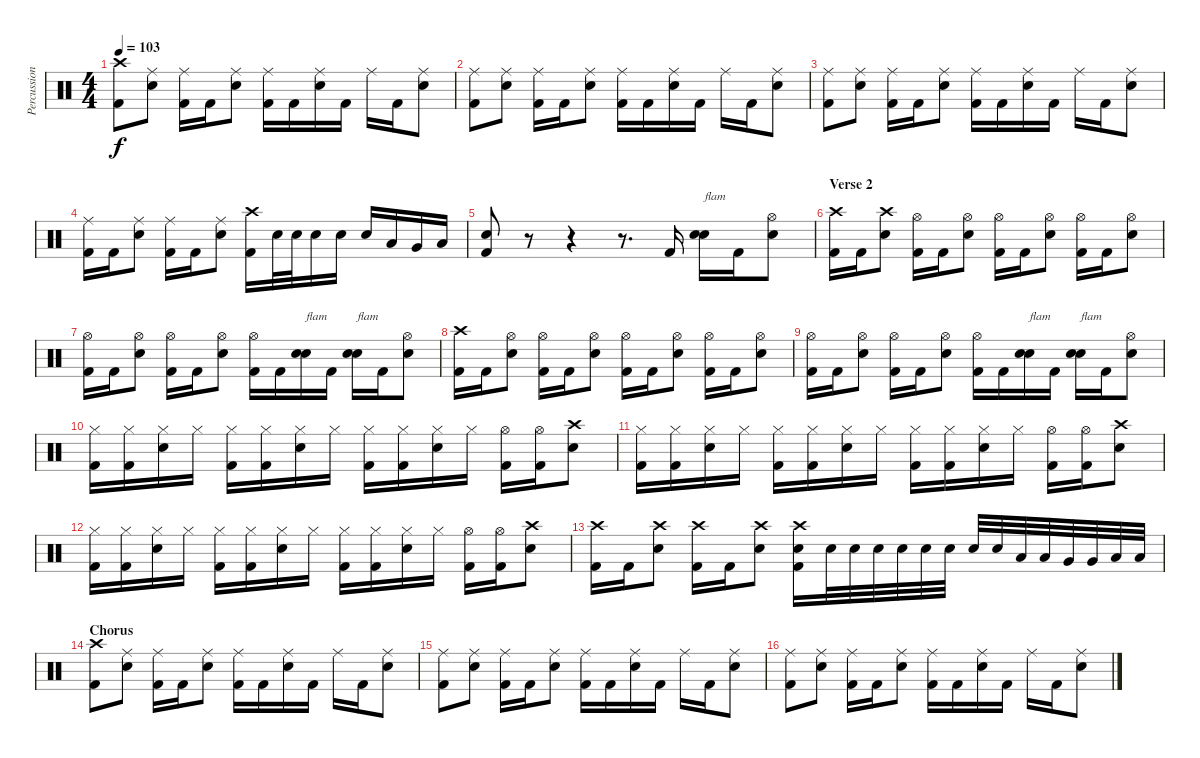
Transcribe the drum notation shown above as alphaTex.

\track ("Percussion - Brandon Barnes" "Percussion") {instrument percussion}
\staff {score}
\articulation defaults
\ts (4 4)
\tempo 103
\clef neutral
\ks c
("Crash high (hit)" "Kick (hit) 2").8{dy f} ("Ride (middle)" "Electric Snare (hit)").8 ("Ride (middle)" "Kick (hit) 2").16 "Kick (hit) 2".16 ("Ride (middle)" "Electric Snare (hit)").8 ("Ride (middle)" "Kick (hit) 2").16 "Kick (hit) 2".16 ("Ride (middle)" "Electric Snare (hit)").16 "Kick (hit) 2".16 "Ride (middle)".16 "Kick (hit) 2".16 ("Ride (middle)" "Electric Snare (hit)").8 |
("Ride (middle)" "Kick (hit) 2").8 ("Ride (middle)" "Electric Snare (hit)").8 ("Ride (middle)" "Kick (hit) 2").16 "Kick (hit) 2".16 ("Ride (middle)" "Electric Snare (hit)").8 ("Ride (middle)" "Kick (hit) 2").16 "Kick (hit) 2".16 ("Ride (middle)" "Electric Snare (hit)").16 "Kick (hit) 2".16 "Ride (middle)".16 "Kick (hit) 2".16 ("Ride (middle)" "Electric Snare (hit)").8 |
("Ride (middle)" "Kick (hit) 2").8 ("Ride (middle)" "Electric Snare (hit)").8 ("Ride (middle)" "Kick (hit) 2").16 "Kick (hit) 2".16 ("Ride (middle)" "Electric Snare (hit)").8 ("Ride (middle)" "Kick (hit) 2").16 "Kick (hit) 2".16 ("Ride (middle)" "Electric Snare (hit)").16 "Kick (hit) 2".16 "Ride (middle)".16 "Kick (hit) 2".16 ("Ride (middle)" "Electric Snare (hit)").8 |
("Ride (middle)" "Kick (hit) 2").16 "Kick (hit) 2".16 ("Ride (middle)" "Electric Snare (hit)").8 ("Ride (middle)" "Kick (hit) 2").16 "Kick (hit) 2".16 ("Ride (middle)" "Electric Snare (hit)").8 ("Crash high (hit)" "Kick (hit) 2").16 "Electric Snare (hit)".32 "Electric Snare (hit)".32 "Electric Snare (hit)".16 "Electric Snare (hit)".16 "Electric Snare (hit)".16 "Low Tom (hit)".16 "Very Low Tom (hit)".16 "Low Floor Tom (hit)".16 |
("Electric Snare (hit)" "Kick (hit) 2").8 r.8 r.4 r.8{d} "Kick (hit) 2".16 ("Electric Snare (hit)" "Electric Snare (hit)").16{bd 30 txt "flam"} "Kick (hit) 2".16 ("Hi-Hat (open)" "Electric Snare (hit)").8 |
\section ("" "Verse 2")
("Crash high (hit)" "Kick (hit) 2").16 "Kick (hit) 2".16 ("Crash high (hit)" "Electric Snare (hit)").8 ("Hi-Hat (open)" "Kick (hit) 2").16 "Kick (hit) 2".16 ("Hi-Hat (open)" "Electric Snare (hit)").8 ("Hi-Hat (open)" "Kick (hit) 2").16 "Kick (hit) 2".16 ("Hi-Hat (open)" "Electric Snare (hit)").8 ("Hi-Hat (open)" "Kick (hit) 2").16 "Kick (hit) 2".16 ("Hi-Hat (open)" "Electric Snare (hit)").8 |
("Hi-Hat (open)" "Kick (hit) 2").16 "Kick (hit) 2".16 ("Hi-Hat (open)" "Electric Snare (hit)").8 ("Hi-Hat (open)" "Kick (hit) 2").16 "Kick (hit) 2".16 ("Hi-Hat (open)" "Electric Snare (hit)").8 ("Hi-Hat (open)" "Kick (hit) 2").16 "Kick (hit) 2".16 ("Electric Snare (hit)" "Electric Snare (hit)").16{bd 30 txt "flam"} "Kick (hit) 2".16 ("Electric Snare (hit)" "Electric Snare (hit)").16{bd 30 txt "flam"} "Kick (hit) 2".16 ("Hi-Hat (open)" "Electric Snare (hit)").8 |
("Crash high (hit)" "Kick (hit) 2").16 "Kick (hit) 2".16 ("Hi-Hat (open)" "Electric Snare (hit)").8 ("Hi-Hat (open)" "Kick (hit) 2").16 "Kick (hit) 2".16 ("Hi-Hat (open)" "Electric Snare (hit)").8 ("Hi-Hat (open)" "Kick (hit) 2").16 "Kick (hit) 2".16 ("Hi-Hat (open)" "Electric Snare (hit)").8 ("Hi-Hat (open)" "Kick (hit) 2").16 "Kick (hit) 2".16 ("Hi-Hat (open)" "Electric Snare (hit)").8 |
("Hi-Hat (open)" "Kick (hit) 2").16 "Kick (hit) 2".16 ("Hi-Hat (open)" "Electric Snare (hit)").8 ("Hi-Hat (open)" "Kick (hit) 2").16 "Kick (hit) 2".16 ("Hi-Hat (open)" "Electric Snare (hit)").8 ("Hi-Hat (open)" "Kick (hit) 2").16 "Kick (hit) 2".16 ("Electric Snare (hit)" "Electric Snare (hit)").16{bd 30 txt "flam"} "Kick (hit) 2".16 ("Electric Snare (hit)" "Electric Snare (hit)").16{bd 30 txt "flam"} "Kick (hit) 2".16 ("Hi-Hat (open)" "Electric Snare (hit)").8 |
("Hi-Hat (closed)" "Kick (hit) 2").16 ("Hi-Hat (closed)" "Kick (hit) 2").16 ("Hi-Hat (closed)" "Electric Snare (hit)").16 "Hi-Hat (closed)".16 ("Hi-Hat (closed)" "Kick (hit) 2").16 ("Hi-Hat (closed)" "Kick (hit) 2").16 ("Hi-Hat (closed)" "Electric Snare (hit)").16 "Hi-Hat (closed)".16 ("Hi-Hat (closed)" "Kick (hit) 2").16 ("Hi-Hat (closed)" "Kick (hit) 2").16 ("Hi-Hat (closed)" "Electric Snare (hit)").16 "Hi-Hat (closed)".16 ("Hi-Hat (open)" "Kick (hit) 2").16 ("Hi-Hat (open)" "Kick (hit) 2").16 ("Crash high (hit)" "Electric Snare (hit)").8 |
("Hi-Hat (closed)" "Kick (hit) 2").16 ("Hi-Hat (closed)" "Kick (hit) 2").16 ("Hi-Hat (closed)" "Electric Snare (hit)").16 "Hi-Hat (closed)".16 ("Hi-Hat (closed)" "Kick (hit) 2").16 ("Hi-Hat (closed)" "Kick (hit) 2").16 ("Hi-Hat (closed)" "Electric Snare (hit)").16 "Hi-Hat (closed)".16 ("Hi-Hat (closed)" "Kick (hit) 2").16 ("Hi-Hat (closed)" "Kick (hit) 2").16 ("Hi-Hat (closed)" "Electric Snare (hit)").16 "Hi-Hat (closed)".16 ("Hi-Hat (open)" "Kick (hit) 2").16 ("Hi-Hat (open)" "Kick (hit) 2").16 ("Crash high (hit)" "Electric Snare (hit)").8 |
("Hi-Hat (closed)" "Kick (hit) 2").16 ("Hi-Hat (closed)" "Kick (hit) 2").16 ("Hi-Hat (closed)" "Electric Snare (hit)").16 "Hi-Hat (closed)".16 ("Hi-Hat (closed)" "Kick (hit) 2").16 ("Hi-Hat (closed)" "Kick (hit) 2").16 ("Hi-Hat (closed)" "Electric Snare (hit)").16 "Hi-Hat (closed)".16 ("Hi-Hat (closed)" "Kick (hit) 2").16 ("Hi-Hat (closed)" "Kick (hit) 2").16 ("Hi-Hat (closed)" "Electric Snare (hit)").16 "Hi-Hat (closed)".16 ("Hi-Hat (open)" "Kick (hit) 2").16 ("Hi-Hat (open)" "Kick (hit) 2").16 ("Crash high (hit)" "Electric Snare (hit)").8 |
("Crash high (hit)" "Kick (hit) 2").16 "Kick (hit) 2".16 ("Crash high (hit)" "Electric Snare (hit)").8 ("Crash high (hit)" "Kick (hit) 2").16 "Kick (hit) 2".16 ("Crash high (hit)" "Electric Snare (hit)").8 ("Crash high (hit)" "Electric Snare (hit)" "Kick (hit) 2").16 "Electric Snare (hit)".32 "Electric Snare (hit)".32 "Electric Snare (hit)".32 "Electric Snare (hit)".32 "Electric Snare (hit)".32 "Electric Snare (hit)".32 "Electric Snare (hit)".32 "Electric Snare (hit)".32 "Low Tom (hit)".32 "Low Tom (hit)".32 "Very Low Tom (hit)".32 "Very Low Tom (hit)".32 "Low Floor Tom (hit)".32 "Low Floor Tom (hit)".32 |
\section ("" "Chorus")
("Crash high (hit)" "Kick (hit) 2").8 ("Ride (middle)" "Electric Snare (hit)").8 ("Ride (middle)" "Kick (hit) 2").16 "Kick (hit) 2".16 ("Ride (middle)" "Electric Snare (hit)").8 ("Ride (middle)" "Kick (hit) 2").16 "Kick (hit) 2".16 ("Ride (middle)" "Electric Snare (hit)").16 "Kick (hit) 2".16 "Ride (middle)".16 "Kick (hit) 2".16 ("Ride (middle)" "Electric Snare (hit)").8 |
("Ride (middle)" "Kick (hit) 2").8 ("Ride (middle)" "Electric Snare (hit)").8 ("Ride (middle)" "Kick (hit) 2").16 "Kick (hit) 2".16 ("Ride (middle)" "Electric Snare (hit)").8 ("Ride (middle)" "Kick (hit) 2").16 "Kick (hit) 2".16 ("Ride (middle)" "Electric Snare (hit)").16 "Kick (hit) 2".16 "Ride (middle)".16 "Kick (hit) 2".16 ("Ride (middle)" "Electric Snare (hit)").8 |
("Ride (middle)" "Kick (hit) 2").8 ("Ride (middle)" "Electric Snare (hit)").8 ("Ride (middle)" "Kick (hit) 2").16 "Kick (hit) 2".16 ("Ride (middle)" "Electric Snare (hit)").8 ("Ride (middle)" "Kick (hit) 2").16 "Kick (hit) 2".16 ("Ride (middle)" "Electric Snare (hit)").16 "Kick (hit) 2".16 "Ride (middle)".16 "Kick (hit) 2".16 ("Ride (middle)" "Electric Snare (hit)").8
